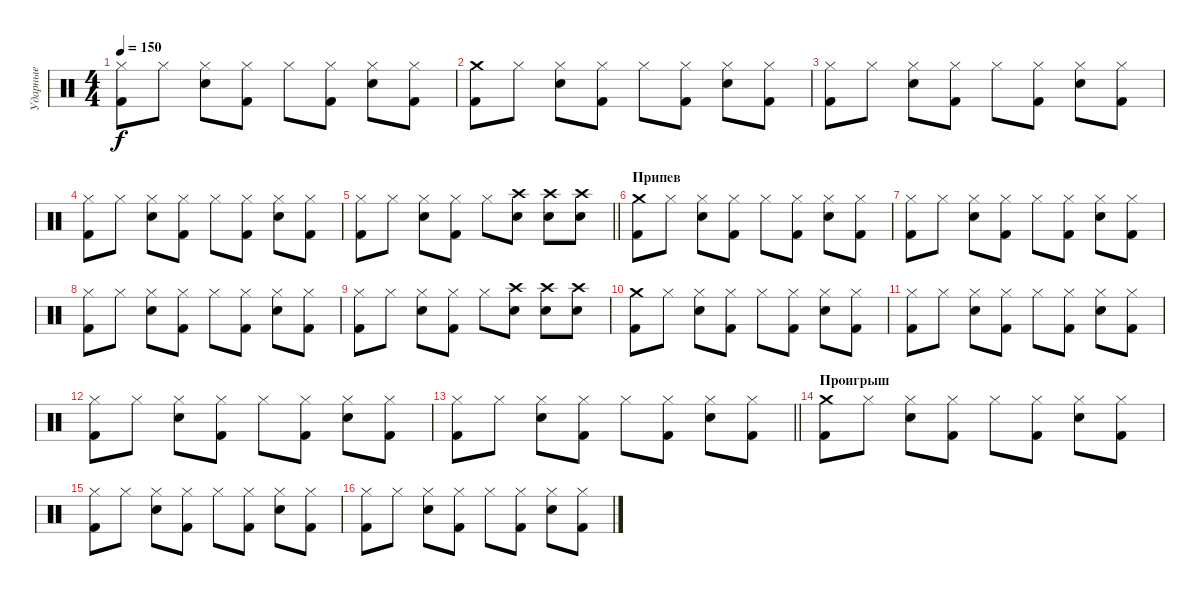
\track ("Ударные" "Ударные") {instrument percussion}
\staff {score}
\articulation defaults
\ts (4 4)
\tempo 150
\clef neutral
\ks c
("Hi-Hat (closed)" "Kick (hit) 2").8{dy f} "Hi-Hat (closed)".8 ("Hi-Hat (closed)" "Electric Snare (hit)").8 ("Hi-Hat (closed)" "Kick (hit) 2").8 "Hi-Hat (closed)".8 ("Hi-Hat (closed)" "Kick (hit) 2").8 ("Hi-Hat (closed)" "Electric Snare (hit)").8 ("Hi-Hat (closed)" "Kick (hit) 2").8 |
("Crash medium (hit)" "Kick (hit) 2").8 "Hi-Hat (closed)".8 ("Hi-Hat (closed)" "Electric Snare (hit)").8 ("Hi-Hat (closed)" "Kick (hit) 2").8 "Hi-Hat (closed)".8 ("Hi-Hat (closed)" "Kick (hit) 2").8 ("Hi-Hat (closed)" "Electric Snare (hit)").8 ("Hi-Hat (closed)" "Kick (hit) 2").8 |
("Hi-Hat (closed)" "Kick (hit) 2").8 "Hi-Hat (closed)".8 ("Hi-Hat (closed)" "Electric Snare (hit)").8 ("Hi-Hat (closed)" "Kick (hit) 2").8 "Hi-Hat (closed)".8 ("Hi-Hat (closed)" "Kick (hit) 2").8 ("Hi-Hat (closed)" "Electric Snare (hit)").8 ("Hi-Hat (closed)" "Kick (hit) 2").8 |
("Hi-Hat (closed)" "Kick (hit) 2").8 "Hi-Hat (closed)".8 ("Hi-Hat (closed)" "Electric Snare (hit)").8 ("Hi-Hat (closed)" "Kick (hit) 2").8 "Hi-Hat (closed)".8 ("Hi-Hat (closed)" "Kick (hit) 2").8 ("Hi-Hat (closed)" "Electric Snare (hit)").8 ("Hi-Hat (closed)" "Kick (hit) 2").8 |
\barLineRight lightlight
("Hi-Hat (closed)" "Kick (hit) 2").8 "Hi-Hat (closed)".8 ("Hi-Hat (closed)" "Electric Snare (hit)").8 ("Hi-Hat (closed)" "Kick (hit) 2").8 "Hi-Hat (closed)".8 ("Crash high (hit)" "Electric Snare (hit)").8 ("Crash high (hit)" "Electric Snare (hit)").8 ("Crash high (hit)" "Electric Snare (hit)").8 |
\section ("" "Припев")
("Crash medium (hit)" "Kick (hit) 2").8 "Hi-Hat (closed)".8 ("Hi-Hat (closed)" "Electric Snare (hit)").8 ("Hi-Hat (closed)" "Kick (hit) 2").8 "Hi-Hat (closed)".8 ("Hi-Hat (closed)" "Kick (hit) 2").8 ("Hi-Hat (closed)" "Electric Snare (hit)").8 ("Hi-Hat (closed)" "Kick (hit) 2").8 |
("Hi-Hat (closed)" "Kick (hit) 2").8 "Hi-Hat (closed)".8 ("Hi-Hat (closed)" "Electric Snare (hit)").8 ("Hi-Hat (closed)" "Kick (hit) 2").8 "Hi-Hat (closed)".8 ("Hi-Hat (closed)" "Kick (hit) 2").8 ("Hi-Hat (closed)" "Electric Snare (hit)").8 ("Hi-Hat (closed)" "Kick (hit) 2").8 |
("Hi-Hat (closed)" "Kick (hit) 2").8 "Hi-Hat (closed)".8 ("Hi-Hat (closed)" "Electric Snare (hit)").8 ("Hi-Hat (closed)" "Kick (hit) 2").8 "Hi-Hat (closed)".8 ("Hi-Hat (closed)" "Kick (hit) 2").8 ("Hi-Hat (closed)" "Electric Snare (hit)").8 ("Hi-Hat (closed)" "Kick (hit) 2").8 |
("Hi-Hat (closed)" "Kick (hit) 2").8 "Hi-Hat (closed)".8 ("Hi-Hat (closed)" "Electric Snare (hit)").8 ("Hi-Hat (closed)" "Kick (hit) 2").8 "Hi-Hat (closed)".8 ("Crash high (hit)" "Electric Snare (hit)").8 ("Crash high (hit)" "Electric Snare (hit)").8 ("Crash high (hit)" "Electric Snare (hit)").8 |
("Crash medium (hit)" "Kick (hit) 2").8 "Hi-Hat (closed)".8 ("Hi-Hat (closed)" "Electric Snare (hit)").8 ("Hi-Hat (closed)" "Kick (hit) 2").8 "Hi-Hat (closed)".8 ("Hi-Hat (closed)" "Kick (hit) 2").8 ("Hi-Hat (closed)" "Electric Snare (hit)").8 ("Hi-Hat (closed)" "Kick (hit) 2").8 |
("Hi-Hat (closed)" "Kick (hit) 2").8 "Hi-Hat (closed)".8 ("Hi-Hat (closed)" "Electric Snare (hit)").8 ("Hi-Hat (closed)" "Kick (hit) 2").8 "Hi-Hat (closed)".8 ("Hi-Hat (closed)" "Kick (hit) 2").8 ("Hi-Hat (closed)" "Electric Snare (hit)").8 ("Hi-Hat (closed)" "Kick (hit) 2").8 |
("Hi-Hat (closed)" "Kick (hit) 2").8 "Hi-Hat (closed)".8 ("Hi-Hat (closed)" "Electric Snare (hit)").8 ("Hi-Hat (closed)" "Kick (hit) 2").8 "Hi-Hat (closed)".8 ("Hi-Hat (closed)" "Kick (hit) 2").8 ("Hi-Hat (closed)" "Electric Snare (hit)").8 ("Hi-Hat (closed)" "Kick (hit) 2").8 |
\barLineRight lightlight
("Hi-Hat (closed)" "Kick (hit) 2").8 "Hi-Hat (closed)".8 ("Hi-Hat (closed)" "Electric Snare (hit)").8 ("Hi-Hat (closed)" "Kick (hit) 2").8 "Hi-Hat (closed)".8 ("Hi-Hat (closed)" "Kick (hit) 2").8 ("Hi-Hat (closed)" "Electric Snare (hit)").8 ("Hi-Hat (closed)" "Kick (hit) 2").8 |
\section ("" "Проигрыш")
("Crash medium (hit)" "Kick (hit) 2").8 "Hi-Hat (closed)".8 ("Hi-Hat (closed)" "Electric Snare (hit)").8 ("Hi-Hat (closed)" "Kick (hit) 2").8 "Hi-Hat (closed)".8 ("Hi-Hat (closed)" "Kick (hit) 2").8 ("Hi-Hat (closed)" "Electric Snare (hit)").8 ("Hi-Hat (closed)" "Kick (hit) 2").8 |
("Hi-Hat (closed)" "Kick (hit) 2").8 "Hi-Hat (closed)".8 ("Hi-Hat (closed)" "Electric Snare (hit)").8 ("Hi-Hat (closed)" "Kick (hit) 2").8 "Hi-Hat (closed)".8 ("Hi-Hat (closed)" "Kick (hit) 2").8 ("Hi-Hat (closed)" "Electric Snare (hit)").8 ("Hi-Hat (closed)" "Kick (hit) 2").8 |
("Hi-Hat (closed)" "Kick (hit) 2").8 "Hi-Hat (closed)".8 ("Hi-Hat (closed)" "Electric Snare (hit)").8 ("Hi-Hat (closed)" "Kick (hit) 2").8 "Hi-Hat (closed)".8 ("Hi-Hat (closed)" "Kick (hit) 2").8 ("Hi-Hat (closed)" "Electric Snare (hit)").8 ("Hi-Hat (closed)" "Kick (hit) 2").8
